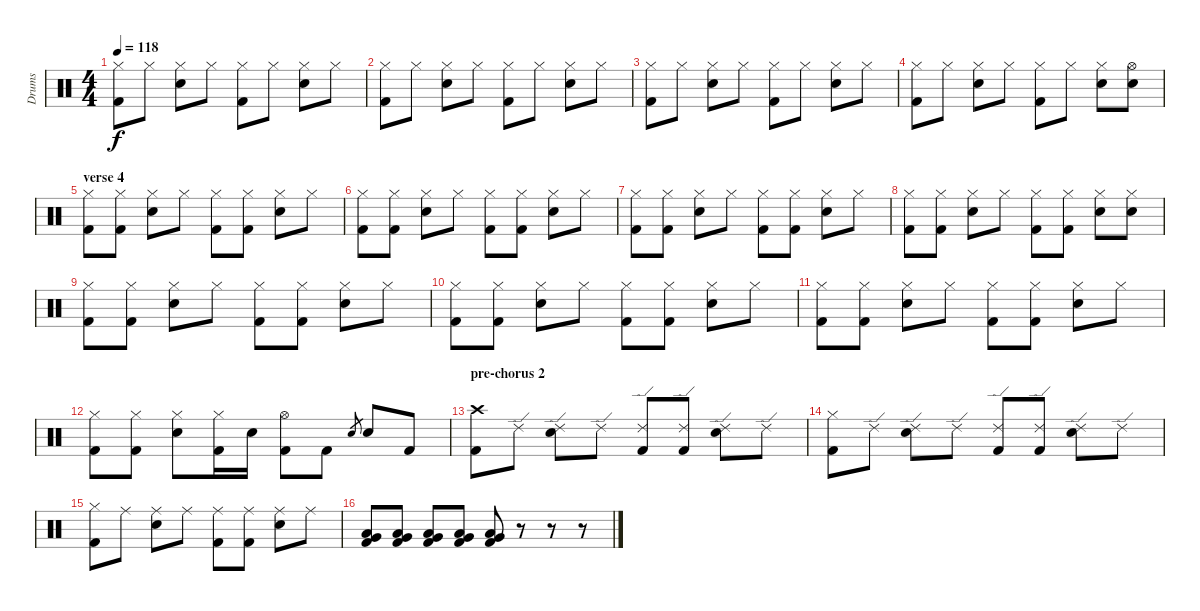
\track ("Drums" "Drums") {instrument percussion}
\staff {score}
\articulation defaults
\ts (4 4)
\tempo 118
\clef neutral
\ks c
("Hi-Hat (closed)" "Kick (hit) 2").8{dy f} "Hi-Hat (closed)".8 ("Hi-Hat (closed)" "Electric Snare (hit)").8 "Hi-Hat (closed)".8 ("Hi-Hat (closed)" "Kick (hit) 2").8 "Hi-Hat (closed)".8 ("Hi-Hat (closed)" "Electric Snare (hit)").8 "Hi-Hat (closed)".8 |
("Hi-Hat (closed)" "Kick (hit) 2").8 "Hi-Hat (closed)".8 ("Hi-Hat (closed)" "Electric Snare (hit)").8 "Hi-Hat (closed)".8 ("Hi-Hat (closed)" "Kick (hit) 2").8 "Hi-Hat (closed)".8 ("Hi-Hat (closed)" "Electric Snare (hit)").8 "Hi-Hat (closed)".8 |
("Hi-Hat (closed)" "Kick (hit) 2").8 "Hi-Hat (closed)".8 ("Hi-Hat (closed)" "Electric Snare (hit)").8 "Hi-Hat (closed)".8 ("Hi-Hat (closed)" "Kick (hit) 2").8 "Hi-Hat (closed)".8 ("Hi-Hat (closed)" "Electric Snare (hit)").8 "Hi-Hat (closed)".8 |
("Hi-Hat (closed)" "Kick (hit) 2").8 "Hi-Hat (closed)".8 ("Hi-Hat (closed)" "Electric Snare (hit)").8 "Hi-Hat (closed)".8 ("Hi-Hat (closed)" "Kick (hit) 2").8 "Hi-Hat (closed)".8 ("Hi-Hat (closed)" "Electric Snare (hit)").8 ("Hi-Hat (open)" "Electric Snare (hit)").8 |
\section ("" "verse 4")
("Hi-Hat (closed)" "Kick (hit) 2").8 ("Hi-Hat (closed)" "Kick (hit) 2").8 ("Hi-Hat (closed)" "Electric Snare (hit)").8 "Hi-Hat (closed)".8 ("Hi-Hat (closed)" "Kick (hit) 2").8 ("Hi-Hat (closed)" "Kick (hit) 2").8 ("Hi-Hat (closed)" "Electric Snare (hit)").8 "Hi-Hat (closed)".8 |
("Hi-Hat (closed)" "Kick (hit) 2").8 ("Hi-Hat (closed)" "Kick (hit) 2").8 ("Hi-Hat (closed)" "Electric Snare (hit)").8 "Hi-Hat (closed)".8 ("Hi-Hat (closed)" "Kick (hit) 2").8 ("Hi-Hat (closed)" "Kick (hit) 2").8 ("Hi-Hat (closed)" "Electric Snare (hit)").8 "Hi-Hat (closed)".8 |
("Hi-Hat (closed)" "Kick (hit) 2").8 ("Hi-Hat (closed)" "Kick (hit) 2").8 ("Hi-Hat (closed)" "Electric Snare (hit)").8 "Hi-Hat (closed)".8 ("Hi-Hat (closed)" "Kick (hit) 2").8 ("Hi-Hat (closed)" "Kick (hit) 2").8 ("Hi-Hat (closed)" "Electric Snare (hit)").8 "Hi-Hat (closed)".8 |
("Hi-Hat (closed)" "Kick (hit) 2").8 ("Hi-Hat (closed)" "Kick (hit) 2").8 ("Hi-Hat (closed)" "Electric Snare (hit)").8 "Hi-Hat (closed)".8 ("Hi-Hat (closed)" "Kick (hit) 2").8 ("Hi-Hat (closed)" "Kick (hit) 2").8 ("Hi-Hat (closed)" "Electric Snare (hit)").8 ("Hi-Hat (closed)" "Electric Snare (hit)").8 |
("Hi-Hat (closed)" "Kick (hit) 2").8 ("Hi-Hat (closed)" "Kick (hit) 2").8 ("Hi-Hat (closed)" "Electric Snare (hit)").8 "Hi-Hat (closed)".8 ("Hi-Hat (closed)" "Kick (hit) 2").8 ("Hi-Hat (closed)" "Kick (hit) 2").8 ("Hi-Hat (closed)" "Electric Snare (hit)").8 "Hi-Hat (closed)".8 |
("Hi-Hat (closed)" "Kick (hit) 2").8 ("Hi-Hat (closed)" "Kick (hit) 2").8 ("Hi-Hat (closed)" "Electric Snare (hit)").8 "Hi-Hat (closed)".8 ("Hi-Hat (closed)" "Kick (hit) 2").8 ("Hi-Hat (closed)" "Kick (hit) 2").8 ("Hi-Hat (closed)" "Electric Snare (hit)").8 "Hi-Hat (closed)".8 |
("Hi-Hat (closed)" "Kick (hit) 2").8 ("Hi-Hat (closed)" "Kick (hit) 2").8 ("Hi-Hat (closed)" "Electric Snare (hit)").8 "Hi-Hat (closed)".8 ("Hi-Hat (closed)" "Kick (hit) 2").8 ("Hi-Hat (closed)" "Kick (hit) 2").8 ("Hi-Hat (closed)" "Electric Snare (hit)").8 "Hi-Hat (closed)".8 |
("Hi-Hat (closed)" "Kick (hit) 2").8 ("Hi-Hat (closed)" "Kick (hit) 2").8 ("Hi-Hat (closed)" "Electric Snare (hit)").8 ("Hi-Hat (closed)" "Kick (hit) 2").16 "Electric Snare (hit)".16 ("Hi-Hat (open)" "Kick (hit) 2").8 "Kick (hit) 2".8 "Electric Snare (hit)".8{gr} "Electric Snare (hit)".8 "Kick (hit) 2".8 |
\section ("" "pre-chorus 2")
("Crash high (hit)" "Kick (hit) 2").8 "Ride (edge) 2".8 ("Ride (edge) 2" "Electric Snare (hit)").8 "Ride (edge) 2".8 ("Ride (edge) 2" "Kick (hit) 2").8 ("Ride (edge) 2" "Kick (hit) 2").8 ("Ride (edge) 2" "Electric Snare (hit)").8 "Ride (edge) 2".8 |
("Hi-Hat (closed)" "Kick (hit) 2").8 "Ride (edge) 2".8 ("Ride (edge) 2" "Electric Snare (hit)").8 "Ride (edge) 2".8 ("Ride (edge) 2" "Kick (hit) 2").8 ("Ride (edge) 2" "Kick (hit) 2").8 ("Ride (edge) 2" "Electric Snare (hit)").8 "Ride (edge) 2".8 |
("Hi-Hat (closed)" "Kick (hit) 2").8 "Ride (middle)".8 ("Ride (middle)" "Electric Snare (hit)").8 "Ride (middle)".8 ("Ride (middle)" "Kick (hit) 2").8 ("Ride (middle)" "Kick (hit) 2").8 ("Ride (middle)" "Electric Snare (hit)").8 "Ride (middle)".8 |
("Low Tom (hit)" "Very Low Tom (hit)" "Kick (hit) 2").8 ("Low Tom (hit)" "Very Low Tom (hit)" "Kick (hit) 2").8 ("Low Tom (hit)" "Very Low Tom (hit)" "Kick (hit) 2").8 ("Low Tom (hit)" "Very Low Tom (hit)" "Kick (hit) 2").8 ("Low Tom (hit)" "Very Low Tom (hit)" "Kick (hit) 2").8 r.8 r.8 r.8
